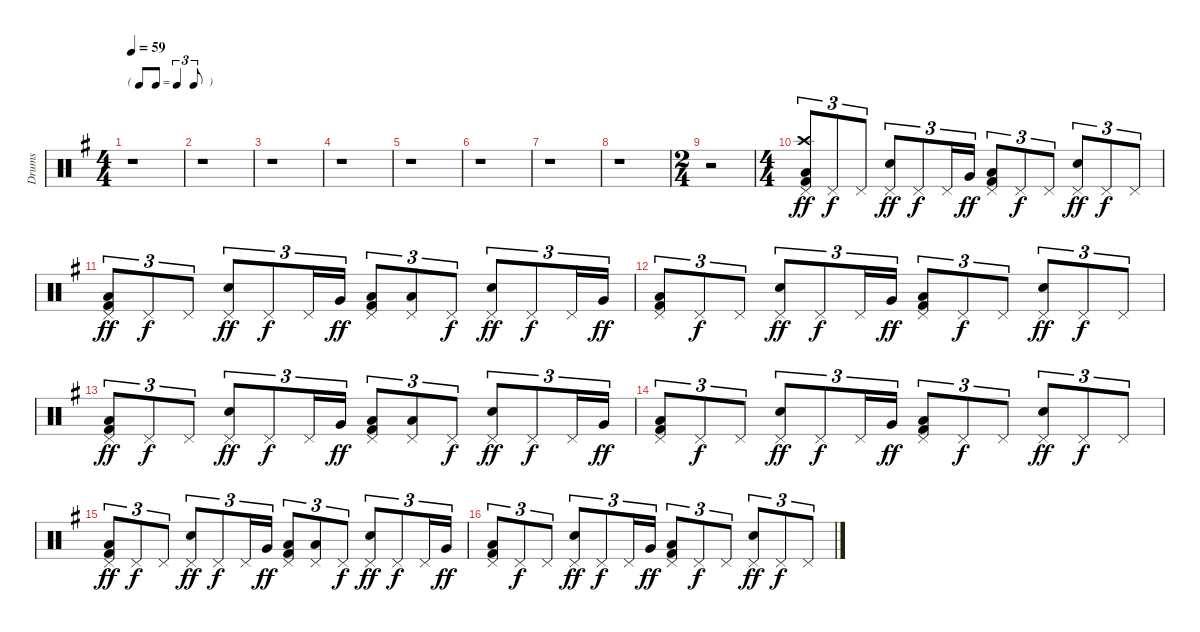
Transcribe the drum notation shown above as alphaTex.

\track ("Drums" "Drums") {instrument percussion}
\staff {score}
\articulation defaults
\ts (4 4)
\tf triplet8th
\tempo 59
\clef neutral
\ks g
r.1{dy ff} |
r.1 |
r.1 |
r.1 |
r.1 |
r.1 |
r.1 |
r.1 |
\ts (2 4)
r.2 |
\ts (4 4)
("Pedal Hi-Hat (hit)" "Crash high (hit)" "Low Floor Tom (hit)" "Kick (hit) 2").8{tu (3 2)} "Pedal Hi-Hat (hit)".8{tu (3 2) dy f} "Pedal Hi-Hat (hit)".8{tu (3 2)} ("Pedal Hi-Hat (hit)" "Electric Snare (hit)").8{tu (3 2) dy ff} "Pedal Hi-Hat (hit)".8{tu (3 2) dy f} "Pedal Hi-Hat (hit)".16{tu (3 2)} "Very Low Tom (hit)".16{tu (3 2) dy ff} ("Pedal Hi-Hat (hit)" "Low Floor Tom (hit)" "Kick (hit) 2").8{tu (3 2)} "Pedal Hi-Hat (hit)".8{tu (3 2) dy f} "Pedal Hi-Hat (hit)".8{tu (3 2)} ("Pedal Hi-Hat (hit)" "Electric Snare (hit)").8{tu (3 2) dy ff} "Pedal Hi-Hat (hit)".8{tu (3 2) dy f} "Pedal Hi-Hat (hit)".8{tu (3 2)} |
("Pedal Hi-Hat (hit)" "Low Floor Tom (hit)" "Kick (hit) 2").8{tu (3 2) dy ff} "Pedal Hi-Hat (hit)".8{tu (3 2) dy f} "Pedal Hi-Hat (hit)".8{tu (3 2)} ("Pedal Hi-Hat (hit)" "Electric Snare (hit)").8{tu (3 2) dy ff} "Pedal Hi-Hat (hit)".8{tu (3 2) dy f} "Pedal Hi-Hat (hit)".16{tu (3 2)} "Very Low Tom (hit)".16{tu (3 2) dy ff} ("Pedal Hi-Hat (hit)" "Low Floor Tom (hit)" "Kick (hit) 2").8{tu (3 2)} ("Pedal Hi-Hat (hit)" "Low Floor Tom (hit)").8{tu (3 2)} "Pedal Hi-Hat (hit)".8{tu (3 2) dy f} ("Pedal Hi-Hat (hit)" "Electric Snare (hit)").8{tu (3 2) dy ff} "Pedal Hi-Hat (hit)".8{tu (3 2) dy f} "Pedal Hi-Hat (hit)".16{tu (3 2)} "Very Low Tom (hit)".16{tu (3 2) dy ff} |
("Pedal Hi-Hat (hit)" "Low Floor Tom (hit)" "Kick (hit) 2").8{tu (3 2)} "Pedal Hi-Hat (hit)".8{tu (3 2) dy f} "Pedal Hi-Hat (hit)".8{tu (3 2)} ("Pedal Hi-Hat (hit)" "Electric Snare (hit)").8{tu (3 2) dy ff} "Pedal Hi-Hat (hit)".8{tu (3 2) dy f} "Pedal Hi-Hat (hit)".16{tu (3 2)} "Very Low Tom (hit)".16{tu (3 2) dy ff} ("Pedal Hi-Hat (hit)" "Low Floor Tom (hit)" "Kick (hit) 2").8{tu (3 2)} "Pedal Hi-Hat (hit)".8{tu (3 2) dy f} "Pedal Hi-Hat (hit)".8{tu (3 2)} ("Pedal Hi-Hat (hit)" "Electric Snare (hit)").8{tu (3 2) dy ff} "Pedal Hi-Hat (hit)".8{tu (3 2) dy f} "Pedal Hi-Hat (hit)".8{tu (3 2)} |
("Pedal Hi-Hat (hit)" "Low Floor Tom (hit)" "Kick (hit) 2").8{tu (3 2) dy ff} "Pedal Hi-Hat (hit)".8{tu (3 2) dy f} "Pedal Hi-Hat (hit)".8{tu (3 2)} ("Pedal Hi-Hat (hit)" "Electric Snare (hit)").8{tu (3 2) dy ff} "Pedal Hi-Hat (hit)".8{tu (3 2) dy f} "Pedal Hi-Hat (hit)".16{tu (3 2)} "Very Low Tom (hit)".16{tu (3 2) dy ff} ("Pedal Hi-Hat (hit)" "Low Floor Tom (hit)" "Kick (hit) 2").8{tu (3 2)} ("Pedal Hi-Hat (hit)" "Low Floor Tom (hit)").8{tu (3 2)} "Pedal Hi-Hat (hit)".8{tu (3 2) dy f} ("Pedal Hi-Hat (hit)" "Electric Snare (hit)").8{tu (3 2) dy ff} "Pedal Hi-Hat (hit)".8{tu (3 2) dy f} "Pedal Hi-Hat (hit)".16{tu (3 2)} "Very Low Tom (hit)".16{tu (3 2) dy ff} |
("Pedal Hi-Hat (hit)" "Low Floor Tom (hit)" "Kick (hit) 2").8{tu (3 2)} "Pedal Hi-Hat (hit)".8{tu (3 2) dy f} "Pedal Hi-Hat (hit)".8{tu (3 2)} ("Pedal Hi-Hat (hit)" "Electric Snare (hit)").8{tu (3 2) dy ff} "Pedal Hi-Hat (hit)".8{tu (3 2) dy f} "Pedal Hi-Hat (hit)".16{tu (3 2)} "Very Low Tom (hit)".16{tu (3 2) dy ff} ("Pedal Hi-Hat (hit)" "Low Floor Tom (hit)" "Kick (hit) 2").8{tu (3 2)} "Pedal Hi-Hat (hit)".8{tu (3 2) dy f} "Pedal Hi-Hat (hit)".8{tu (3 2)} ("Pedal Hi-Hat (hit)" "Electric Snare (hit)").8{tu (3 2) dy ff} "Pedal Hi-Hat (hit)".8{tu (3 2) dy f} "Pedal Hi-Hat (hit)".8{tu (3 2)} |
("Pedal Hi-Hat (hit)" "Low Floor Tom (hit)" "Kick (hit) 2").8{tu (3 2) dy ff} "Pedal Hi-Hat (hit)".8{tu (3 2) dy f} "Pedal Hi-Hat (hit)".8{tu (3 2)} ("Pedal Hi-Hat (hit)" "Electric Snare (hit)").8{tu (3 2) dy ff} "Pedal Hi-Hat (hit)".8{tu (3 2) dy f} "Pedal Hi-Hat (hit)".16{tu (3 2)} "Very Low Tom (hit)".16{tu (3 2) dy ff} ("Pedal Hi-Hat (hit)" "Low Floor Tom (hit)" "Kick (hit) 2").8{tu (3 2)} ("Pedal Hi-Hat (hit)" "Low Floor Tom (hit)").8{tu (3 2)} "Pedal Hi-Hat (hit)".8{tu (3 2) dy f} ("Pedal Hi-Hat (hit)" "Electric Snare (hit)").8{tu (3 2) dy ff} "Pedal Hi-Hat (hit)".8{tu (3 2) dy f} "Pedal Hi-Hat (hit)".16{tu (3 2)} "Very Low Tom (hit)".16{tu (3 2) dy ff} |
("Pedal Hi-Hat (hit)" "Low Floor Tom (hit)" "Kick (hit) 2").8{tu (3 2)} "Pedal Hi-Hat (hit)".8{tu (3 2) dy f} "Pedal Hi-Hat (hit)".8{tu (3 2)} ("Pedal Hi-Hat (hit)" "Electric Snare (hit)").8{tu (3 2) dy ff} "Pedal Hi-Hat (hit)".8{tu (3 2) dy f} "Pedal Hi-Hat (hit)".16{tu (3 2)} "Very Low Tom (hit)".16{tu (3 2) dy ff} ("Pedal Hi-Hat (hit)" "Low Floor Tom (hit)" "Kick (hit) 2").8{tu (3 2)} "Pedal Hi-Hat (hit)".8{tu (3 2) dy f} "Pedal Hi-Hat (hit)".8{tu (3 2)} ("Pedal Hi-Hat (hit)" "Electric Snare (hit)").8{tu (3 2) dy ff} "Pedal Hi-Hat (hit)".8{tu (3 2) dy f} "Pedal Hi-Hat (hit)".8{tu (3 2)}
